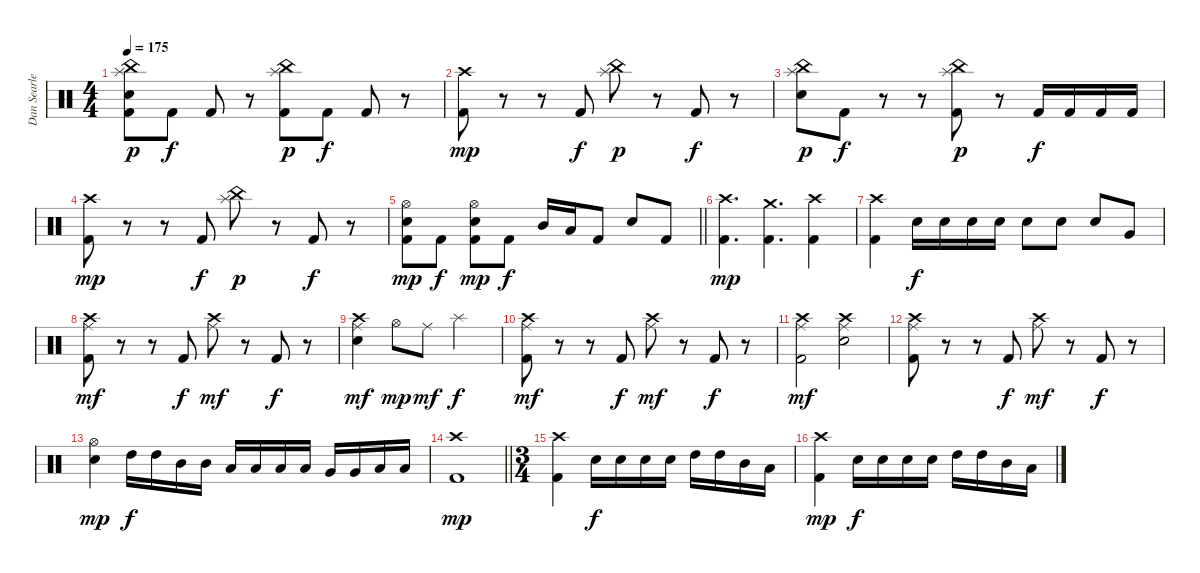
\track ("Dan Searle" "Dan Searle") {instrument percussion}
\staff {score}
\articulation defaults
\ts (4 4)
\tempo 175
\clef neutral
\ks c
("China (hit)" "Splash (hit)" "Electric Snare (hit)" "Kick (hit) 2").8{dy p} "Kick (hit) 2".8{dy f} "Kick (hit) 2".8 r.8 ("China (hit)" "Splash (hit)" "Kick (hit) 2").8{dy p} "Kick (hit) 2".8{dy f} "Kick (hit) 2".8 r.8 |
("Crash high (hit)" "Kick (hit) 2").8{dy mp} r.8 r.8 "Kick (hit) 2".8{dy f} ("China (hit)" "Splash (hit)").8{dy p} r.8 "Kick (hit) 2".8{dy f} r.8 |
("China (hit)" "Splash (hit)" "Electric Snare (hit)").8{dy p} "Kick (hit) 2".8{dy f} r.8 r.8 ("China (hit)" "Splash (hit)" "Kick (hit) 2").8{dy p} r.8 "Kick (hit) 2".16{dy f} "Kick (hit) 2".16 "Kick (hit) 2".16 "Kick (hit) 2".16 |
("Crash high (hit)" "Kick (hit) 2").8{dy mp} r.8 r.8 "Kick (hit) 2".8{dy f} ("China (hit)" "Splash (hit)").8{dy p} r.8 "Kick (hit) 2".8{dy f} r.8 |
\barLineRight lightlight
("Hi-Hat (open)" "Electric Snare (hit)" "Kick (hit) 2").8{dy mp} "Kick (hit) 2".8{dy f} ("Hi-Hat (open)" "Electric Snare (hit)" "Kick (hit) 2").8{dy mp} "Kick (hit) 2".8{dy f} "Mid Tom (hit)".16 "Low Tom (hit)".16 "Kick (hit) 2".8 "Electric Snare (hit)".8 "Kick (hit) 2".8 |
("Crash high (hit)" "Kick (hit) 2").4{d dy mp} ("Crash medium (hit)" "Kick (hit) 2").4{d} ("Crash high (hit)" "Kick (hit) 2").4 |
("Crash high (hit)" "Kick (hit) 2").4 "Electric Snare (hit)".16{dy f} "Electric Snare (hit)".16 "Electric Snare (hit)".16 "Electric Snare (hit)".16 "Electric Snare (hit)".8 "Electric Snare (hit)".8 "Electric Snare (hit)".8 "Very Low Tom (hit)".8 |
("Crash high (hit)" "Ride (middle)" "Kick (hit) 2").8{dy mf} r.8 r.8 "Kick (hit) 2".8{dy f} ("Crash high (hit)" "Ride (middle)").8{dy mf} r.8 "Kick (hit) 2".8{dy f} r.8 |
("Crash high (hit)" "Ride (middle)" "Electric Snare (hit)").4{dy mf} "Hi-Hat (open)".8{dy mp} "Ride (middle)".8{dy mf} "Splash (hit)".2{dy f} |
("Crash high (hit)" "Ride (middle)" "Kick (hit) 2").8{dy mf} r.8 r.8 "Kick (hit) 2".8{dy f} ("Crash high (hit)" "Ride (middle)").8{dy mf} r.8 "Kick (hit) 2".8{dy f} r.8 |
("Crash high (hit)" "Ride (middle)" "Kick (hit) 2").2{dy mf} ("Crash high (hit)" "Ride (middle)" "Electric Snare (hit)").2 |
("Crash high (hit)" "Ride (middle)" "Kick (hit) 2").8 r.8 r.8 "Kick (hit) 2".8{dy f} ("Crash high (hit)" "Ride (middle)").8{dy mf} r.8 "Kick (hit) 2".8{dy f} r.8 |
("Hi-Hat (open)" "Electric Snare (hit)").4{dy mp} "High Tom (hit)".16{dy f} "High Tom (hit)".16 "Mid Tom (hit)".16 "Mid Tom (hit)".16 "Low Tom (hit)".16 "Low Tom (hit)".16 "Low Tom (hit)".16 "Low Tom (hit)".16 "Very Low Tom (hit)".16 "Very Low Tom (hit)".16 "Low Floor Tom (hit)".16 "Low Floor Tom (hit)".16 |
\barLineRight lightlight
("Crash high (hit)" "Kick (hit) 2").1{dy mp} |
\ts (3 4)
("Crash high (hit)" "Kick (hit) 2").4 "Electric Snare (hit)".16{dy f} "Electric Snare (hit)".16 "Electric Snare (hit)".16 "Electric Snare (hit)".16 "High Tom (hit)".16 "High Tom (hit)".16 "Mid Tom (hit)".16 "Low Tom (hit)".16 |
("Crash high (hit)" "Kick (hit) 2").4{dy mp} "Electric Snare (hit)".16{dy f} "Electric Snare (hit)".16 "Electric Snare (hit)".16 "Electric Snare (hit)".16 "High Tom (hit)".16 "High Tom (hit)".16 "Mid Tom (hit)".16 "Low Tom (hit)".16
